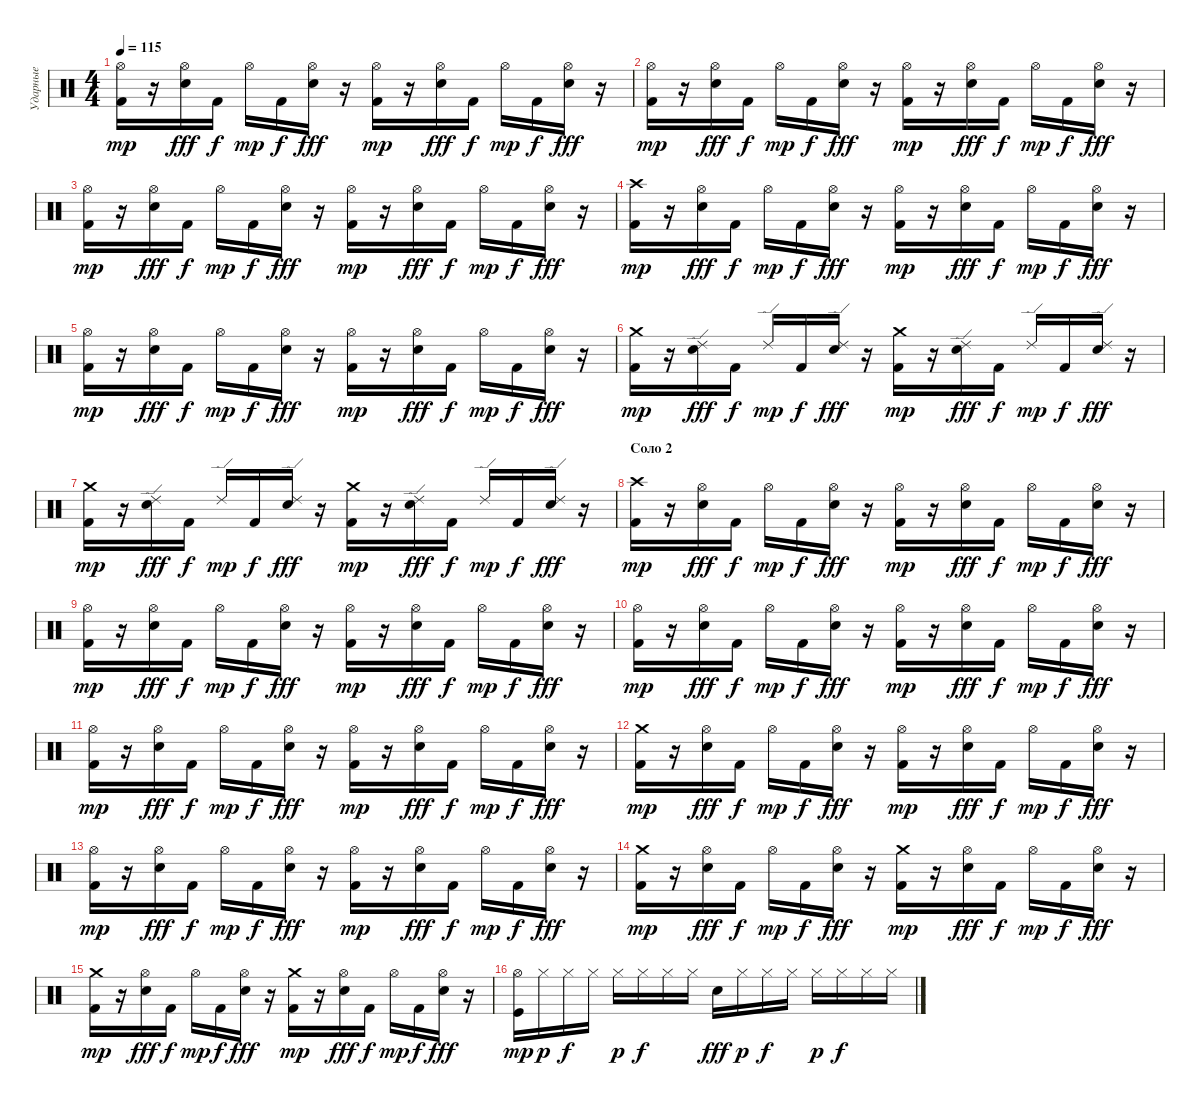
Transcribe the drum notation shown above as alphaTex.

\track ("Ударные" "Ударные") {instrument percussion}
\staff {score}
\articulation defaults
\ts (4 4)
\tempo 115
\clef neutral
\ks c
("Hi-Hat (open)" "Kick (hit) 2").16{dy mp} r.16 ("Hi-Hat (open)" "Electric Snare (hit)").16{dy fff} "Kick (hit) 2".16{dy f} "Hi-Hat (open)".16{dy mp} "Kick (hit) 2".16{dy f} ("Hi-Hat (open)" "Electric Snare (hit)").16{dy fff} r.16 ("Hi-Hat (open)" "Kick (hit) 2").16{dy mp} r.16 ("Hi-Hat (open)" "Electric Snare (hit)").16{dy fff} "Kick (hit) 2".16{dy f} "Hi-Hat (open)".16{dy mp} "Kick (hit) 2".16{dy f} ("Hi-Hat (open)" "Electric Snare (hit)").16{dy fff} r.16 |
("Hi-Hat (open)" "Kick (hit) 2").16{dy mp} r.16 ("Hi-Hat (open)" "Electric Snare (hit)").16{dy fff} "Kick (hit) 2".16{dy f} "Hi-Hat (open)".16{dy mp} "Kick (hit) 2".16{dy f} ("Hi-Hat (open)" "Electric Snare (hit)").16{dy fff} r.16 ("Hi-Hat (open)" "Kick (hit) 2").16{dy mp} r.16 ("Hi-Hat (open)" "Electric Snare (hit)").16{dy fff} "Kick (hit) 2".16{dy f} "Hi-Hat (open)".16{dy mp} "Kick (hit) 2".16{dy f} ("Hi-Hat (open)" "Electric Snare (hit)").16{dy fff} r.16 |
("Hi-Hat (open)" "Kick (hit) 2").16{dy mp} r.16 ("Hi-Hat (open)" "Electric Snare (hit)").16{dy fff} "Kick (hit) 2".16{dy f} "Hi-Hat (open)".16{dy mp} "Kick (hit) 2".16{dy f} ("Hi-Hat (open)" "Electric Snare (hit)").16{dy fff} r.16 ("Hi-Hat (open)" "Kick (hit) 2").16{dy mp} r.16 ("Hi-Hat (open)" "Electric Snare (hit)").16{dy fff} "Kick (hit) 2".16{dy f} "Hi-Hat (open)".16{dy mp} "Kick (hit) 2".16{dy f} ("Hi-Hat (open)" "Electric Snare (hit)").16{dy fff} r.16 |
("Crash high (hit)" "Kick (hit) 2").16{dy mp} r.16 ("Hi-Hat (open)" "Electric Snare (hit)").16{dy fff} "Kick (hit) 2".16{dy f} "Hi-Hat (open)".16{dy mp} "Kick (hit) 2".16{dy f} ("Hi-Hat (open)" "Electric Snare (hit)").16{dy fff} r.16 ("Hi-Hat (open)" "Kick (hit) 2").16{dy mp} r.16 ("Hi-Hat (open)" "Electric Snare (hit)").16{dy fff} "Kick (hit) 2".16{dy f} "Hi-Hat (open)".16{dy mp} "Kick (hit) 2".16{dy f} ("Hi-Hat (open)" "Electric Snare (hit)").16{dy fff} r.16 |
("Hi-Hat (open)" "Kick (hit) 2").16{dy mp} r.16 ("Hi-Hat (open)" "Electric Snare (hit)").16{dy fff} "Kick (hit) 2".16{dy f} "Hi-Hat (open)".16{dy mp} "Kick (hit) 2".16{dy f} ("Hi-Hat (open)" "Electric Snare (hit)").16{dy fff} r.16 ("Hi-Hat (open)" "Kick (hit) 2").16{dy mp} r.16 ("Hi-Hat (open)" "Electric Snare (hit)").16{dy fff} "Kick (hit) 2".16{dy f} "Hi-Hat (open)".16{dy mp} "Kick (hit) 2".16{dy f} ("Hi-Hat (open)" "Electric Snare (hit)").16{dy fff} r.16 |
("Crash medium (hit)" "Kick (hit) 2").16{dy mp} r.16 ("Ride (edge) 2" "Electric Snare (hit)").16{dy fff} "Kick (hit) 2".16{dy f} "Ride (edge) 2".16{dy mp} "Kick (hit) 2".16{dy f} ("Ride (edge) 2" "Electric Snare (hit)").16{dy fff} r.16 ("Crash medium (hit)" "Kick (hit) 2").16{dy mp} r.16 ("Ride (edge) 2" "Electric Snare (hit)").16{dy fff} "Kick (hit) 2".16{dy f} "Ride (edge) 2".16{dy mp} "Kick (hit) 2".16{dy f} ("Ride (edge) 2" "Electric Snare (hit)").16{dy fff} r.16 |
("Crash medium (hit)" "Kick (hit) 2").16{dy mp} r.16 ("Ride (edge) 2" "Electric Snare (hit)").16{dy fff} "Kick (hit) 2".16{dy f} "Ride (edge) 2".16{dy mp} "Kick (hit) 2".16{dy f} ("Ride (edge) 2" "Electric Snare (hit)").16{dy fff} r.16 ("Crash medium (hit)" "Kick (hit) 2").16{dy mp} r.16 ("Ride (edge) 2" "Electric Snare (hit)").16{dy fff} "Kick (hit) 2".16{dy f} "Ride (edge) 2".16{dy mp} "Kick (hit) 2".16{dy f} ("Ride (edge) 2" "Electric Snare (hit)").16{dy fff} r.16 |
\section ("" "Соло 2")
("Crash high (hit)" "Kick (hit) 2").16{dy mp} r.16 ("Hi-Hat (open)" "Electric Snare (hit)").16{dy fff} "Kick (hit) 2".16{dy f} "Hi-Hat (open)".16{dy mp} "Kick (hit) 2".16{dy f} ("Hi-Hat (open)" "Electric Snare (hit)").16{dy fff} r.16 ("Hi-Hat (open)" "Kick (hit) 2").16{dy mp} r.16 ("Hi-Hat (open)" "Electric Snare (hit)").16{dy fff} "Kick (hit) 2".16{dy f} "Hi-Hat (open)".16{dy mp} "Kick (hit) 2".16{dy f} ("Hi-Hat (open)" "Electric Snare (hit)").16{dy fff} r.16 |
("Hi-Hat (open)" "Kick (hit) 2").16{dy mp} r.16 ("Hi-Hat (open)" "Electric Snare (hit)").16{dy fff} "Kick (hit) 2".16{dy f} "Hi-Hat (open)".16{dy mp} "Kick (hit) 2".16{dy f} ("Hi-Hat (open)" "Electric Snare (hit)").16{dy fff} r.16 ("Hi-Hat (open)" "Kick (hit) 2").16{dy mp} r.16 ("Hi-Hat (open)" "Electric Snare (hit)").16{dy fff} "Kick (hit) 2".16{dy f} "Hi-Hat (open)".16{dy mp} "Kick (hit) 2".16{dy f} ("Hi-Hat (open)" "Electric Snare (hit)").16{dy fff} r.16 |
("Hi-Hat (open)" "Kick (hit) 2").16{dy mp} r.16 ("Hi-Hat (open)" "Electric Snare (hit)").16{dy fff} "Kick (hit) 2".16{dy f} "Hi-Hat (open)".16{dy mp} "Kick (hit) 2".16{dy f} ("Hi-Hat (open)" "Electric Snare (hit)").16{dy fff} r.16 ("Hi-Hat (open)" "Kick (hit) 2").16{dy mp} r.16 ("Hi-Hat (open)" "Electric Snare (hit)").16{dy fff} "Kick (hit) 2".16{dy f} "Hi-Hat (open)".16{dy mp} "Kick (hit) 2".16{dy f} ("Hi-Hat (open)" "Electric Snare (hit)").16{dy fff} r.16 |
("Hi-Hat (open)" "Kick (hit) 2").16{dy mp} r.16 ("Hi-Hat (open)" "Electric Snare (hit)").16{dy fff} "Kick (hit) 2".16{dy f} "Hi-Hat (open)".16{dy mp} "Kick (hit) 2".16{dy f} ("Hi-Hat (open)" "Electric Snare (hit)").16{dy fff} r.16 ("Hi-Hat (open)" "Kick (hit) 2").16{dy mp} r.16 ("Hi-Hat (open)" "Electric Snare (hit)").16{dy fff} "Kick (hit) 2".16{dy f} "Hi-Hat (open)".16{dy mp} "Kick (hit) 2".16{dy f} ("Hi-Hat (open)" "Electric Snare (hit)").16{dy fff} r.16 |
("Crash medium (hit)" "Kick (hit) 2").16{dy mp} r.16 ("Hi-Hat (open)" "Electric Snare (hit)").16{dy fff} "Kick (hit) 2".16{dy f} "Hi-Hat (open)".16{dy mp} "Kick (hit) 2".16{dy f} ("Hi-Hat (open)" "Electric Snare (hit)").16{dy fff} r.16 ("Hi-Hat (open)" "Kick (hit) 2").16{dy mp} r.16 ("Hi-Hat (open)" "Electric Snare (hit)").16{dy fff} "Kick (hit) 2".16{dy f} "Hi-Hat (open)".16{dy mp} "Kick (hit) 2".16{dy f} ("Hi-Hat (open)" "Electric Snare (hit)").16{dy fff} r.16 |
("Hi-Hat (open)" "Kick (hit) 2").16{dy mp} r.16 ("Hi-Hat (open)" "Electric Snare (hit)").16{dy fff} "Kick (hit) 2".16{dy f} "Hi-Hat (open)".16{dy mp} "Kick (hit) 2".16{dy f} ("Hi-Hat (open)" "Electric Snare (hit)").16{dy fff} r.16 ("Hi-Hat (open)" "Kick (hit) 2").16{dy mp} r.16 ("Hi-Hat (open)" "Electric Snare (hit)").16{dy fff} "Kick (hit) 2".16{dy f} "Hi-Hat (open)".16{dy mp} "Kick (hit) 2".16{dy f} ("Hi-Hat (open)" "Electric Snare (hit)").16{dy fff} r.16 |
("Crash medium (hit)" "Kick (hit) 2").16{dy mp} r.16 ("Hi-Hat (open)" "Electric Snare (hit)").16{dy fff} "Kick (hit) 2".16{dy f} "Hi-Hat (open)".16{dy mp} "Kick (hit) 2".16{dy f} ("Hi-Hat (open)" "Electric Snare (hit)").16{dy fff} r.16 ("Crash medium (hit)" "Kick (hit) 2").16{dy mp} r.16 ("Hi-Hat (open)" "Electric Snare (hit)").16{dy fff} "Kick (hit) 2".16{dy f} "Hi-Hat (open)".16{dy mp} "Kick (hit) 2".16{dy f} ("Hi-Hat (open)" "Electric Snare (hit)").16{dy fff} r.16 |
("Crash medium (hit)" "Kick (hit) 2").16{dy mp} r.16 ("Hi-Hat (open)" "Electric Snare (hit)").16{dy fff} "Kick (hit) 2".16{dy f} "Hi-Hat (open)".16{dy mp} "Kick (hit) 2".16{dy f} ("Hi-Hat (open)" "Electric Snare (hit)").16{dy fff} r.16 ("Crash medium (hit)" "Kick (hit) 2").16{dy mp} r.16 ("Hi-Hat (open)" "Electric Snare (hit)").16{dy fff} "Kick (hit) 2".16{dy f} "Hi-Hat (open)".16{dy mp} "Kick (hit) 2".16{dy f} ("Hi-Hat (open)" "Electric Snare (hit)").16{dy fff} r.16 |
\section ("" "")
("Hi-Hat (open)" "Kick (hit)").16{dy mp} "Hi-Hat (closed)".16{dy p} "Hi-Hat (closed)".16{dy f} "Hi-Hat (closed)".16 "Hi-Hat (closed)".16{dy p} "Hi-Hat (closed)".16{dy f} "Hi-Hat (closed)".16 "Hi-Hat (closed)".16 "Electric Snare (hit)".16{dy fff} "Hi-Hat (closed)".16{dy p} "Hi-Hat (closed)".16{dy f} "Hi-Hat (closed)".16 "Hi-Hat (closed)".16{dy p} "Hi-Hat (closed)".16{dy f} "Hi-Hat (closed)".16 "Hi-Hat (closed)".16
